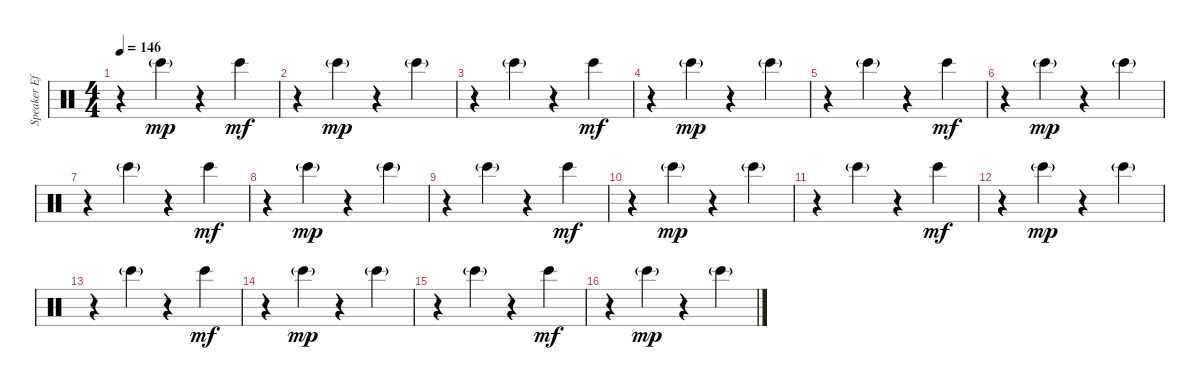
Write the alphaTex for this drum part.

\track ("Speaker Effects" "Speaker Ef") {instrument percussion}
\staff {score}
\articulation defaults
\ts (4 4)
\tempo 146
\clef neutral
\ks c
r.4{dy mp balance 8} "Bongo High (hit)"{g}.4{balance 4} r.4{balance 8} "Bongo High (hit)".4{dy mf balance 12} |
r.4{balance 8} "Bongo High (hit)"{g}.4{dy mp balance 4} r.4{balance 8} "Bongo High (hit)"{g}.4{balance 16} |
r.4{balance 8} "Bongo High (hit)"{g}.4{balance 4} r.4{balance 8} "Bongo High (hit)".4{dy mf balance 12} |
r.4{balance 8} "Bongo High (hit)"{g}.4{dy mp balance 4} r.4{balance 8} "Bongo High (hit)"{g}.4{balance 16} |
r.4{balance 8} "Bongo High (hit)"{g}.4{balance 4} r.4{balance 8} "Bongo High (hit)".4{dy mf balance 12} |
r.4{balance 8} "Bongo High (hit)"{g}.4{dy mp balance 4} r.4{balance 8} "Bongo High (hit)"{g}.4{balance 16} |
r.4{balance 8} "Bongo High (hit)"{g}.4{balance 4} r.4{balance 8} "Bongo High (hit)".4{dy mf balance 12} |
r.4{balance 8} "Bongo High (hit)"{g}.4{dy mp balance 4} r.4{balance 8} "Bongo High (hit)"{g}.4{balance 16} |
r.4{balance 8} "Bongo High (hit)"{g}.4{balance 4} r.4{balance 8} "Bongo High (hit)".4{dy mf balance 12} |
r.4{balance 8} "Bongo High (hit)"{g}.4{dy mp balance 4} r.4{balance 8} "Bongo High (hit)"{g}.4{balance 16} |
r.4{balance 8} "Bongo High (hit)"{g}.4{balance 4} r.4{balance 8} "Bongo High (hit)".4{dy mf balance 12} |
r.4{balance 8} "Bongo High (hit)"{g}.4{dy mp balance 4} r.4{balance 8} "Bongo High (hit)"{g}.4{balance 16} |
r.4{balance 8} "Bongo High (hit)"{g}.4{balance 4} r.4{balance 8} "Bongo High (hit)".4{dy mf balance 12} |
r.4{balance 8} "Bongo High (hit)"{g}.4{dy mp balance 4} r.4{balance 8} "Bongo High (hit)"{g}.4{balance 16} |
r.4{balance 8} "Bongo High (hit)"{g}.4{balance 4} r.4{balance 8} "Bongo High (hit)".4{dy mf balance 12} |
r.4{balance 8} "Bongo High (hit)"{g}.4{dy mp balance 4} r.4{balance 8} "Bongo High (hit)"{g}.4{balance 16}
